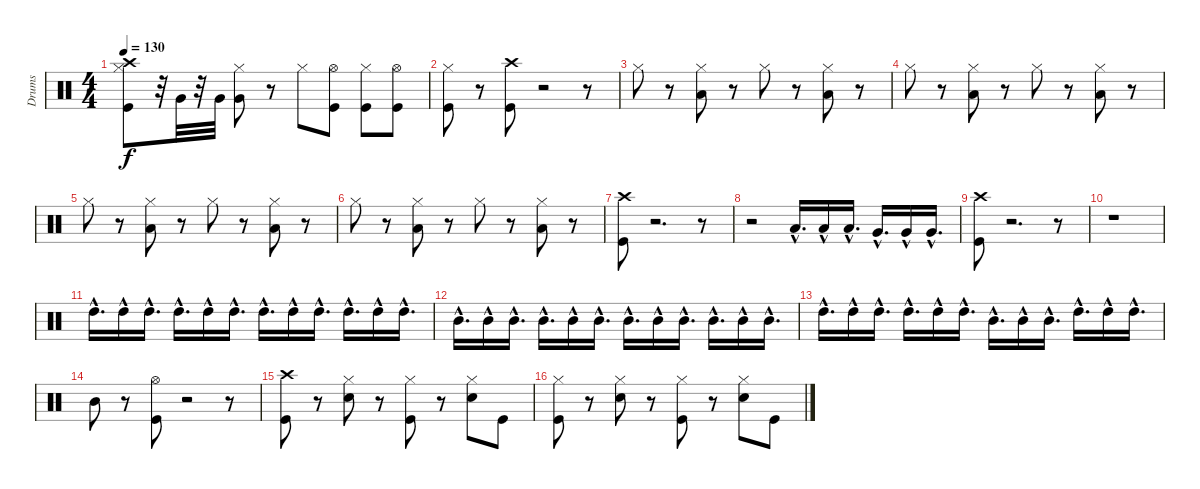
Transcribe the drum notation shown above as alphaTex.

\track ("Drums" "Drums") {instrument percussion}
\staff {score}
\articulation defaults
\ts (4 4)
\tempo 130
\clef neutral
\ks c
("Crash high (hit)" "Hi-Hat (closed)" "Kick (hit)").8{dy f} r.32 "Very Low Tom (hit)".32 r.32 "Very Low Tom (hit)".32 ("Very Low Tom (hit)" "Hi-Hat (closed)").8 r.8 "Hi-Hat (closed)".8 ("Kick (hit)" "Hi-Hat (open)").8 ("Hi-Hat (closed)" "Kick (hit)").8 ("Hi-Hat (open)" "Kick (hit)").8 |
("Kick (hit)" "Hi-Hat (closed)").8 r.8 ("Kick (hit)" "Crash high (hit)").8 r.2 r.8 |
"Hi-Hat (closed)".8 r.8 ("Hi-Hat (closed)" "Low Floor Tom (hit)").8 r.8 "Hi-Hat (closed)".8 r.8 ("Hi-Hat (closed)" "Low Floor Tom (hit)").8 r.8 |
"Hi-Hat (closed)".8 r.8 ("Low Floor Tom (hit)" "Hi-Hat (closed)").8 r.8 "Hi-Hat (closed)".8 r.8 ("Low Floor Tom (hit)" "Hi-Hat (closed)").8 r.8 |
"Hi-Hat (closed)".8 r.8 ("Hi-Hat (closed)" "Low Floor Tom (hit)").8 r.8 "Hi-Hat (closed)".8 r.8 ("Hi-Hat (closed)" "Low Floor Tom (hit)").8 r.8 |
"Hi-Hat (closed)".8 r.8 ("Low Floor Tom (hit)" "Hi-Hat (closed)").8 r.8 "Hi-Hat (closed)".8 r.8 ("Low Floor Tom (hit)" "Hi-Hat (closed)").8 r.8 |
("Crash high (hit)" "Kick (hit)").8 r.2{d} r.8 |
r.2 "Low Floor Tom (hit)"{hac}.16{d} "Low Floor Tom (hit)"{hac}.16 "Low Floor Tom (hit)"{hac}.16{d} "Very Low Tom (hit)"{hac}.16{d} "Very Low Tom (hit)"{hac}.16 "Very Low Tom (hit)"{hac}.16{d} |
("Crash high (hit)" "Kick (hit)").8 r.2{d} r.8 |
r.1 |
"High Tom (hit)"{hac}.16{d volume 9} "High Tom (hit)"{hac}.16 "High Tom (hit)"{hac}.16{d} "High Tom (hit)"{hac}.16{d} "High Tom (hit)"{hac}.16 "High Tom (hit)"{hac}.16{d} "High Tom (hit)"{hac}.16{d} "High Tom (hit)"{hac}.16 "High Tom (hit)"{hac}.16{d} "High Tom (hit)"{hac}.16{d} "High Tom (hit)"{hac}.16 "High Tom (hit)"{hac}.16{d} |
"Mid Tom (hit)"{hac}.16{d} "Mid Tom (hit)"{hac}.16 "Mid Tom (hit)"{hac}.16{d} "Mid Tom (hit)"{hac}.16{d} "Mid Tom (hit)"{hac}.16 "Mid Tom (hit)"{hac}.16{d} "Mid Tom (hit)"{hac}.16{d} "Mid Tom (hit)"{hac}.16 "Mid Tom (hit)"{hac}.16{d} "Mid Tom (hit)"{hac}.16{d} "Mid Tom (hit)"{hac}.16 "Mid Tom (hit)"{hac}.16{d} |
"High Tom (hit)"{hac}.16{d volume 16} "High Tom (hit)"{hac}.16 "High Tom (hit)"{hac}.16{d} "High Tom (hit)"{hac}.16{d} "High Tom (hit)"{hac}.16 "High Tom (hit)"{hac}.16{d} "Mid Tom (hit)"{hac}.16{d} "Mid Tom (hit)"{hac}.16 "Mid Tom (hit)"{hac}.16{d} "High Tom (hit)"{hac}.16{d} "High Tom (hit)"{hac}.16 "High Tom (hit)"{hac}.16{d} |
"Mid Tom (hit)".8 r.8 ("Kick (hit)" "Hi-Hat (open)").8 r.2 r.8 |
("Crash high (hit)" "Kick (hit)").8 r.8 ("Hi-Hat (closed)" "Snare (hit) 2").8 r.8 ("Hi-Hat (closed)" "Kick (hit)").8 r.8 ("Hi-Hat (closed)" "Snare (hit) 2").8 "Kick (hit)".8 |
("Hi-Hat (closed)" "Kick (hit)").8 r.8 ("Hi-Hat (closed)" "Snare (hit) 2").8 r.8 ("Hi-Hat (closed)" "Kick (hit)").8 r.8 ("Hi-Hat (closed)" "Snare (hit) 2").8 "Kick (hit)".8
